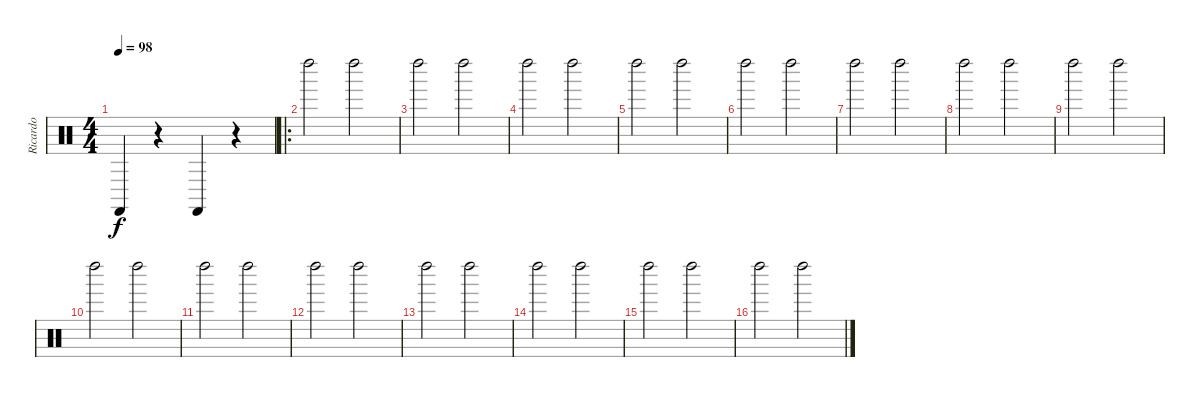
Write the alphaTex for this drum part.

\track ("Ricardo" "Ricardo") {instrument percussion}
\staff {score}
\articulation defaults
\ts (4 4)
\tempo 98
\clef neutral
\ks c "Castanets (hit)".4{dy f}
r.4 "Castanets (hit)".4 r.4 |
\ro "Left Maraca (hit)".2 "Left Maraca (hit)".2
|
"Left Maraca (hit)".2 "Left Maraca (hit)".2 |
"Left Maraca (hit)".2 "Left Maraca (hit)".2 |
"Left Maraca (hit)".2 "Left Maraca (hit)".2 |
"Left Maraca (hit)".2 "Left Maraca (hit)".2 |
"Left Maraca (hit)".2 "Left Maraca (hit)".2 |
"Left Maraca (hit)".2 "Left Maraca (hit)".2 |
"Left Maraca (hit)".2 "Left Maraca (hit)".2 |
"Left Maraca (hit)".2 "Left Maraca (hit)".2 |
"Left Maraca (hit)".2 "Left Maraca (hit)".2 |
"Left Maraca (hit)".2 "Left Maraca (hit)".2 |
"Left Maraca (hit)".2 "Left Maraca (hit)".2 |
"Left Maraca (hit)".2 "Left Maraca (hit)".2 |
"Left Maraca (hit)".2 "Left Maraca (hit)".2 |
"Left Maraca (hit)".2 "Left Maraca (hit)".2
